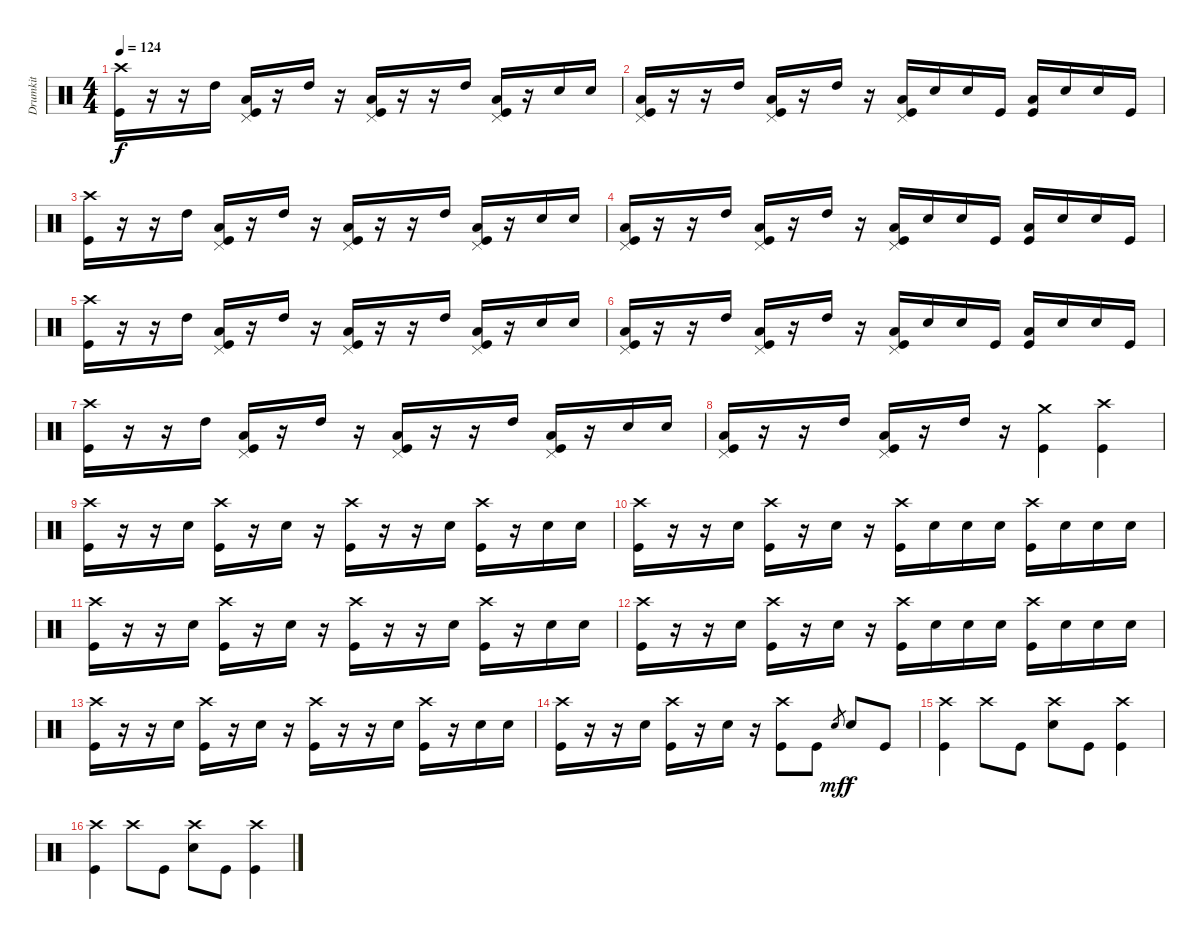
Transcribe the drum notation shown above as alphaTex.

\track ("Drumkit" "Drumkit") {instrument percussion}
\staff {score}
\articulation defaults
\ts (4 4)
\tempo 124
\clef neutral
\ks c
("Crash high (hit)" "Kick (hit)").16{dy f} r.16 r.16 "High Tom (hit)".16 ("Low Floor Tom (hit)" "Pedal Hi-Hat (hit)" "Kick (hit)").16 r.16 "High Tom (hit)".16 r.16 ("Low Floor Tom (hit)" "Pedal Hi-Hat (hit)" "Kick (hit)").16 r.16 r.16 "High Tom (hit)".16 ("Low Floor Tom (hit)" "Pedal Hi-Hat (hit)" "Kick (hit)").16 r.16 "Snare (hit) 2".16 "Snare (hit) 2".16 |
("Low Floor Tom (hit)" "Pedal Hi-Hat (hit)" "Kick (hit)").16 r.16 r.16 "High Tom (hit)".16 ("Low Floor Tom (hit)" "Pedal Hi-Hat (hit)" "Kick (hit)").16 r.16 "High Tom (hit)".16 r.16 ("Low Floor Tom (hit)" "Pedal Hi-Hat (hit)" "Kick (hit)").16 "Snare (hit) 2".16 "Snare (hit) 2".16 "Kick (hit)".16 ("Kick (hit)" "Low Floor Tom (hit)").16 "Snare (hit) 2".16 "Snare (hit) 2".16 "Kick (hit)".16 |
("Crash high (hit)" "Kick (hit)").16 r.16 r.16 "High Tom (hit)".16 ("Low Floor Tom (hit)" "Pedal Hi-Hat (hit)" "Kick (hit)").16 r.16 "High Tom (hit)".16 r.16 ("Low Floor Tom (hit)" "Pedal Hi-Hat (hit)" "Kick (hit)").16 r.16 r.16 "High Tom (hit)".16 ("Low Floor Tom (hit)" "Pedal Hi-Hat (hit)" "Kick (hit)").16 r.16 "Snare (hit) 2".16 "Snare (hit) 2".16 |
("Low Floor Tom (hit)" "Pedal Hi-Hat (hit)" "Kick (hit)").16 r.16 r.16 "High Tom (hit)".16 ("Low Floor Tom (hit)" "Pedal Hi-Hat (hit)" "Kick (hit)").16 r.16 "High Tom (hit)".16 r.16 ("Low Floor Tom (hit)" "Pedal Hi-Hat (hit)" "Kick (hit)").16 "Snare (hit) 2".16 "Snare (hit) 2".16 "Kick (hit)".16 ("Kick (hit)" "Low Floor Tom (hit)").16 "Snare (hit) 2".16 "Snare (hit) 2".16 "Kick (hit)".16 |
("Crash high (hit)" "Kick (hit)").16 r.16 r.16 "High Tom (hit)".16 ("Low Floor Tom (hit)" "Pedal Hi-Hat (hit)" "Kick (hit)").16 r.16 "High Tom (hit)".16 r.16 ("Low Floor Tom (hit)" "Pedal Hi-Hat (hit)" "Kick (hit)").16 r.16 r.16 "High Tom (hit)".16 ("Low Floor Tom (hit)" "Pedal Hi-Hat (hit)" "Kick (hit)").16 r.16 "Snare (hit) 2".16 "Snare (hit) 2".16 |
("Low Floor Tom (hit)" "Pedal Hi-Hat (hit)" "Kick (hit)").16 r.16 r.16 "High Tom (hit)".16 ("Low Floor Tom (hit)" "Pedal Hi-Hat (hit)" "Kick (hit)").16 r.16 "High Tom (hit)".16 r.16 ("Low Floor Tom (hit)" "Pedal Hi-Hat (hit)" "Kick (hit)").16 "Snare (hit) 2".16 "Snare (hit) 2".16 "Kick (hit)".16 ("Kick (hit)" "Low Floor Tom (hit)").16 "Snare (hit) 2".16 "Snare (hit) 2".16 "Kick (hit)".16 |
("Crash high (hit)" "Kick (hit)").16 r.16 r.16 "High Tom (hit)".16 ("Low Floor Tom (hit)" "Pedal Hi-Hat (hit)" "Kick (hit)").16 r.16 "High Tom (hit)".16 r.16 ("Low Floor Tom (hit)" "Pedal Hi-Hat (hit)" "Kick (hit)").16 r.16 r.16 "High Tom (hit)".16 ("Low Floor Tom (hit)" "Pedal Hi-Hat (hit)" "Kick (hit)").16 r.16 "Snare (hit) 2".16 "Snare (hit) 2".16 |
("Low Floor Tom (hit)" "Pedal Hi-Hat (hit)" "Kick (hit)").16 r.16 r.16 "High Tom (hit)".16 ("Low Floor Tom (hit)" "Pedal Hi-Hat (hit)" "Kick (hit)").16 r.16 "High Tom (hit)".16 r.16 ("Kick (hit)" "Crash medium (hit)").4 ("Kick (hit)" "Crash high (hit)").4 |
("Crash high (hit)" "Kick (hit)").16 r.16 r.16 "Snare (hit) 2".16 ("Crash high (hit)" "Kick (hit)").16 r.16 "Snare (hit) 2".16 r.16 ("Crash high (hit)" "Kick (hit)").16 r.16 r.16 "Snare (hit) 2".16 ("Crash high (hit)" "Kick (hit)").16 r.16 "Snare (hit) 2".16 "Snare (hit) 2".16 |
("Crash high (hit)" "Kick (hit)").16 r.16 r.16 "Snare (hit) 2".16 ("Crash high (hit)" "Kick (hit)").16 r.16 "Snare (hit) 2".16 r.16 ("Crash high (hit)" "Kick (hit)").16 "Snare (hit) 2".16 "Snare (hit) 2".16 "Snare (hit) 2".16 ("Kick (hit)" "Crash high (hit)").16 "Snare (hit) 2".16 "Snare (hit) 2".16 "Snare (hit) 2".16 |
("Crash high (hit)" "Kick (hit)").16 r.16 r.16 "Snare (hit) 2".16 ("Crash high (hit)" "Kick (hit)").16 r.16 "Snare (hit) 2".16 r.16 ("Crash high (hit)" "Kick (hit)").16 r.16 r.16 "Snare (hit) 2".16 ("Crash high (hit)" "Kick (hit)").16 r.16 "Snare (hit) 2".16 "Snare (hit) 2".16 |
("Crash high (hit)" "Kick (hit)").16 r.16 r.16 "Snare (hit) 2".16 ("Crash high (hit)" "Kick (hit)").16 r.16 "Snare (hit) 2".16 r.16 ("Crash high (hit)" "Kick (hit)").16 "Snare (hit) 2".16 "Snare (hit) 2".16 "Snare (hit) 2".16 ("Kick (hit)" "Crash high (hit)").16 "Snare (hit) 2".16 "Snare (hit) 2".16 "Snare (hit) 2".16 |
("Crash high (hit)" "Kick (hit)").16 r.16 r.16 "Snare (hit) 2".16 ("Crash high (hit)" "Kick (hit)").16 r.16 "Snare (hit) 2".16 r.16 ("Crash high (hit)" "Kick (hit)").16 r.16 r.16 "Snare (hit) 2".16 ("Crash high (hit)" "Kick (hit)").16 r.16 "Snare (hit) 2".16 "Snare (hit) 2".16 |
("Crash high (hit)" "Kick (hit)").16 r.16 r.16 "Snare (hit) 2".16 ("Crash high (hit)" "Kick (hit)").16 r.16 "Snare (hit) 2".16 r.16 ("Kick (hit)" "Crash high (hit)").8 "Kick (hit)".8 "Snare (hit)".8{gr dy mf} "Snare (hit) 2".8{dy f} "Kick (hit)".8 |
("Kick (hit)" "Crash high (hit)").4 "Crash high (hit)".8 "Kick (hit)".8 ("Snare (hit) 2" "Crash high (hit)").8 "Kick (hit)".8 ("Kick (hit)" "Crash high (hit)").4 |
("Kick (hit)" "Crash high (hit)").4 "Crash high (hit)".8 "Kick (hit)".8 ("Snare (hit) 2" "Crash high (hit)").8 "Kick (hit)".8 ("Kick (hit)" "Crash high (hit)").4
